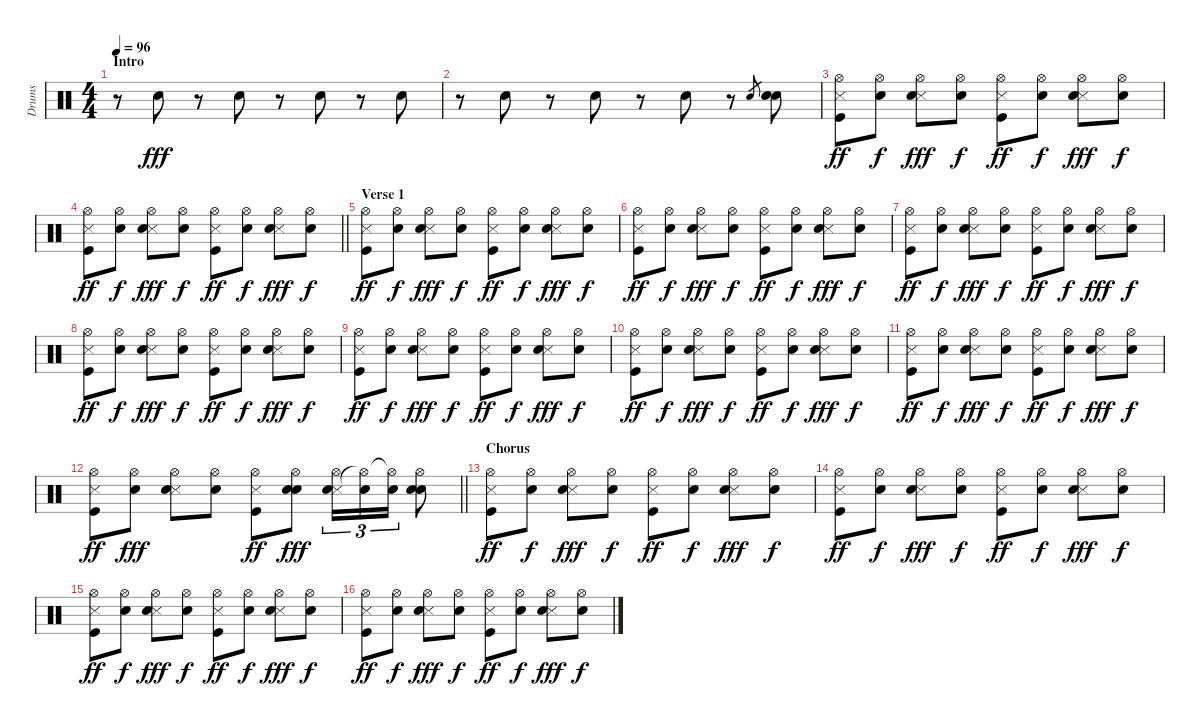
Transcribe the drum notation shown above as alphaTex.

\track ("Drums" "Drums") {instrument percussion}
\staff {score}
\articulation defaults
\ts (4 4)
\section ("" "Intro")
\tempo 96
\clef neutral
\ks c
r.8{dy fff} "Hand Clap (hit)".8 r.8 "Hand Clap (hit)".8 r.8 "Hand Clap (hit)".8 r.8 "Hand Clap (hit)".8 |
r.8 "Hand Clap (hit)".8 r.8 "Hand Clap (hit)".8 r.8 "Hand Clap (hit)".8 r.8 "Electric Snare (hit)".8{gr} ("Hand Clap (hit)" "Snare (hit) 2").8 |
("Snare (side stick) 3" "Hi-Hat (open)" "Kick (hit)").8{dy ff} ("Hand Clap (hit)" "Hi-Hat (open)").8{dy f} ("Snare (side stick) 3" "Hi-Hat (open)" "Snare (hit) 2").8{dy fff} ("Hand Clap (hit)" "Hi-Hat (open)").8{dy f} ("Snare (side stick) 3" "Hi-Hat (open)" "Kick (hit)").8{dy ff} ("Hand Clap (hit)" "Hi-Hat (open)").8{dy f} ("Snare (side stick) 3" "Hi-Hat (open)" "Snare (hit) 2").8{dy fff} ("Hand Clap (hit)" "Hi-Hat (open)").8{dy f} |
\barLineRight lightlight
("Snare (side stick) 3" "Hi-Hat (open)" "Kick (hit)").8{dy ff} ("Hand Clap (hit)" "Hi-Hat (open)").8{dy f} ("Snare (side stick) 3" "Hi-Hat (open)" "Snare (hit) 2").8{dy fff} ("Hand Clap (hit)" "Hi-Hat (open)").8{dy f} ("Snare (side stick) 3" "Hi-Hat (open)" "Kick (hit)").8{dy ff} ("Hand Clap (hit)" "Hi-Hat (open)").8{dy f} ("Snare (side stick) 3" "Hi-Hat (open)" "Snare (hit) 2").8{dy fff} ("Hand Clap (hit)" "Hi-Hat (open)").8{dy f} |
\section ("" "Verse 1")
("Snare (side stick) 3" "Hi-Hat (open)" "Kick (hit)").8{dy ff} ("Hand Clap (hit)" "Hi-Hat (open)").8{dy f} ("Snare (side stick) 3" "Hi-Hat (open)" "Snare (hit) 2").8{dy fff} ("Hand Clap (hit)" "Hi-Hat (open)").8{dy f} ("Snare (side stick) 3" "Hi-Hat (open)" "Kick (hit)").8{dy ff} ("Hand Clap (hit)" "Hi-Hat (open)").8{dy f} ("Snare (side stick) 3" "Hi-Hat (open)" "Snare (hit) 2").8{dy fff} ("Hand Clap (hit)" "Hi-Hat (open)").8{dy f} |
("Snare (side stick) 3" "Hi-Hat (open)" "Kick (hit)").8{dy ff} ("Hand Clap (hit)" "Hi-Hat (open)").8{dy f} ("Snare (side stick) 3" "Hi-Hat (open)" "Snare (hit) 2").8{dy fff} ("Hand Clap (hit)" "Hi-Hat (open)").8{dy f} ("Snare (side stick) 3" "Hi-Hat (open)" "Kick (hit)").8{dy ff} ("Hand Clap (hit)" "Hi-Hat (open)").8{dy f} ("Snare (side stick) 3" "Hi-Hat (open)" "Snare (hit) 2").8{dy fff} ("Hand Clap (hit)" "Hi-Hat (open)").8{dy f} |
("Snare (side stick) 3" "Hi-Hat (open)" "Kick (hit)").8{dy ff} ("Hand Clap (hit)" "Hi-Hat (open)").8{dy f} ("Snare (side stick) 3" "Hi-Hat (open)" "Snare (hit) 2").8{dy fff} ("Hand Clap (hit)" "Hi-Hat (open)").8{dy f} ("Snare (side stick) 3" "Hi-Hat (open)" "Kick (hit)").8{dy ff} ("Hand Clap (hit)" "Hi-Hat (open)").8{dy f} ("Snare (side stick) 3" "Hi-Hat (open)" "Snare (hit) 2").8{dy fff} ("Hand Clap (hit)" "Hi-Hat (open)").8{dy f} |
("Snare (side stick) 3" "Hi-Hat (open)" "Kick (hit)").8{dy ff} ("Hand Clap (hit)" "Hi-Hat (open)").8{dy f} ("Snare (side stick) 3" "Hi-Hat (open)" "Snare (hit) 2").8{dy fff} ("Hand Clap (hit)" "Hi-Hat (open)").8{dy f} ("Snare (side stick) 3" "Hi-Hat (open)" "Kick (hit)").8{dy ff} ("Hand Clap (hit)" "Hi-Hat (open)").8{dy f} ("Snare (side stick) 3" "Hi-Hat (open)" "Snare (hit) 2").8{dy fff} ("Hand Clap (hit)" "Hi-Hat (open)").8{dy f} |
("Snare (side stick) 3" "Hi-Hat (open)" "Kick (hit)").8{dy ff} ("Hand Clap (hit)" "Hi-Hat (open)").8{dy f} ("Snare (side stick) 3" "Hi-Hat (open)" "Snare (hit) 2").8{dy fff} ("Hand Clap (hit)" "Hi-Hat (open)").8{dy f} ("Snare (side stick) 3" "Hi-Hat (open)" "Kick (hit)").8{dy ff} ("Hand Clap (hit)" "Hi-Hat (open)").8{dy f} ("Snare (side stick) 3" "Hi-Hat (open)" "Snare (hit) 2").8{dy fff} ("Hand Clap (hit)" "Hi-Hat (open)").8{dy f} |
("Snare (side stick) 3" "Hi-Hat (open)" "Kick (hit)").8{dy ff} ("Hand Clap (hit)" "Hi-Hat (open)").8{dy f} ("Snare (side stick) 3" "Hi-Hat (open)" "Snare (hit) 2").8{dy fff} ("Hand Clap (hit)" "Hi-Hat (open)").8{dy f} ("Snare (side stick) 3" "Hi-Hat (open)" "Kick (hit)").8{dy ff} ("Hand Clap (hit)" "Hi-Hat (open)").8{dy f} ("Snare (side stick) 3" "Hi-Hat (open)" "Snare (hit) 2").8{dy fff} ("Hand Clap (hit)" "Hi-Hat (open)").8{dy f} |
("Snare (side stick) 3" "Hi-Hat (open)" "Kick (hit)").8{dy ff} ("Hand Clap (hit)" "Hi-Hat (open)").8{dy f} ("Snare (side stick) 3" "Hi-Hat (open)" "Snare (hit) 2").8{dy fff} ("Hand Clap (hit)" "Hi-Hat (open)").8{dy f} ("Snare (side stick) 3" "Hi-Hat (open)" "Kick (hit)").8{dy ff} ("Hand Clap (hit)" "Hi-Hat (open)").8{dy f} ("Snare (side stick) 3" "Hi-Hat (open)" "Snare (hit) 2").8{dy fff} ("Hand Clap (hit)" "Hi-Hat (open)").8{dy f} |
\barLineRight lightlight
("Snare (side stick) 3" "Hi-Hat (open)" "Kick (hit)").8{dy ff} ("Hand Clap (hit)" "Hi-Hat (open)").8{dy fff} ("Snare (side stick) 3" "Hi-Hat (open)" "Snare (hit) 2").8 ("Hand Clap (hit)" "Hi-Hat (open)").8 ("Snare (side stick) 3" "Hi-Hat (open)" "Kick (hit)").8{dy ff} ("Hand Clap (hit)" "Hi-Hat (open)" "Snare (hit) 2").8{dy fff} ("Snare (side stick) 3" "Hi-Hat (open)" "Snare (hit) 2").16{tu (3 2)} ("Hi-Hat (open)"{t} "Snare (hit) 2").16{tu (3 2)} ("Hi-Hat (open)"{t} "Snare (hit) 2").16{tu (3 2)} ("Hand Clap (hit)" "Hi-Hat (open)" "Snare (hit) 2").8 |
\section ("" "Chorus")
("Snare (side stick) 3" "Hi-Hat (open)" "Kick (hit)").8{dy ff} ("Hand Clap (hit)" "Hi-Hat (open)").8{dy f} ("Snare (side stick) 3" "Hi-Hat (open)" "Snare (hit) 2").8{dy fff} ("Hand Clap (hit)" "Hi-Hat (open)").8{dy f} ("Snare (side stick) 3" "Hi-Hat (open)" "Kick (hit)").8{dy ff} ("Hand Clap (hit)" "Hi-Hat (open)").8{dy f} ("Snare (side stick) 3" "Hi-Hat (open)" "Snare (hit) 2").8{dy fff} ("Hand Clap (hit)" "Hi-Hat (open)").8{dy f} |
("Snare (side stick) 3" "Hi-Hat (open)" "Kick (hit)").8{dy ff} ("Hand Clap (hit)" "Hi-Hat (open)").8{dy f} ("Snare (side stick) 3" "Hi-Hat (open)" "Snare (hit) 2").8{dy fff} ("Hand Clap (hit)" "Hi-Hat (open)").8{dy f} ("Snare (side stick) 3" "Hi-Hat (open)" "Kick (hit)").8{dy ff} ("Hand Clap (hit)" "Hi-Hat (open)").8{dy f} ("Snare (side stick) 3" "Hi-Hat (open)" "Snare (hit) 2").8{dy fff} ("Hand Clap (hit)" "Hi-Hat (open)").8{dy f} |
("Snare (side stick) 3" "Hi-Hat (open)" "Kick (hit)").8{dy ff} ("Hand Clap (hit)" "Hi-Hat (open)").8{dy f} ("Snare (side stick) 3" "Hi-Hat (open)" "Snare (hit) 2").8{dy fff} ("Hand Clap (hit)" "Hi-Hat (open)").8{dy f} ("Snare (side stick) 3" "Hi-Hat (open)" "Kick (hit)").8{dy ff} ("Hand Clap (hit)" "Hi-Hat (open)").8{dy f} ("Snare (side stick) 3" "Hi-Hat (open)" "Snare (hit) 2").8{dy fff} ("Hand Clap (hit)" "Hi-Hat (open)").8{dy f} |
("Snare (side stick) 3" "Hi-Hat (open)" "Kick (hit)").8{dy ff} ("Hand Clap (hit)" "Hi-Hat (open)").8{dy f} ("Snare (side stick) 3" "Hi-Hat (open)" "Snare (hit) 2").8{dy fff} ("Hand Clap (hit)" "Hi-Hat (open)").8{dy f} ("Snare (side stick) 3" "Hi-Hat (open)" "Kick (hit)").8{dy ff} ("Hand Clap (hit)" "Hi-Hat (open)").8{dy f} ("Snare (side stick) 3" "Hi-Hat (open)" "Snare (hit) 2").8{dy fff} ("Hand Clap (hit)" "Hi-Hat (open)").8{dy f}
